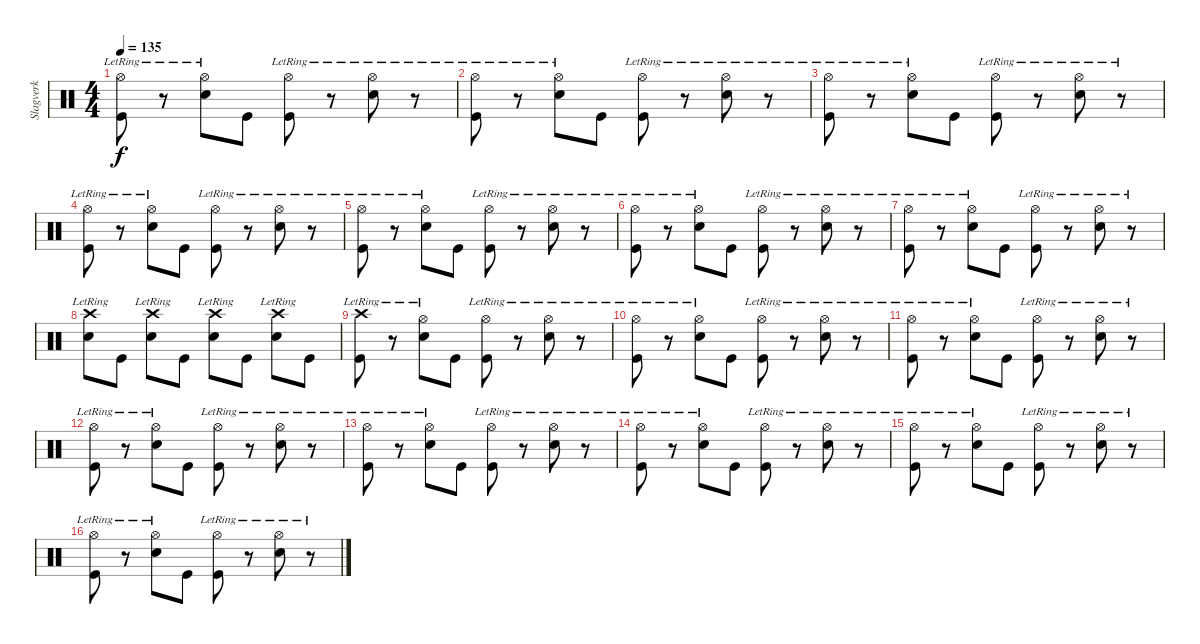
\track ("Slagverk" "Slagverk") {instrument percussion}
\staff {score}
\articulation defaults
\ts (4 4)
\tempo 135
\clef neutral
\ks c
("Hi-Hat (open)"{lr} "Kick (hit)").8{dy f} r.8 ("Electric Snare (hit)" "Hi-Hat (open)"{lr}).8 "Kick (hit)".8 ("Hi-Hat (open)"{lr} "Kick (hit)").8 r.8 ("Electric Snare (hit)" "Hi-Hat (open)"{lr}).8 r.8 |
("Hi-Hat (open)"{lr} "Kick (hit)").8 r.8 ("Electric Snare (hit)" "Hi-Hat (open)"{lr}).8 "Kick (hit)".8 ("Hi-Hat (open)"{lr} "Kick (hit)").8 r.8 ("Electric Snare (hit)" "Hi-Hat (open)"{lr}).8 r.8 |
("Hi-Hat (open)"{lr} "Kick (hit)").8 r.8 ("Electric Snare (hit)" "Hi-Hat (open)"{lr}).8 "Kick (hit)".8 ("Hi-Hat (open)"{lr} "Kick (hit)").8 r.8 ("Electric Snare (hit)" "Hi-Hat (open)"{lr}).8 r.8 |
("Hi-Hat (open)"{lr} "Kick (hit)").8 r.8 ("Electric Snare (hit)" "Hi-Hat (open)"{lr}).8 "Kick (hit)".8 ("Hi-Hat (open)"{lr} "Kick (hit)").8 r.8 ("Electric Snare (hit)" "Hi-Hat (open)"{lr}).8 r.8 |
("Hi-Hat (open)"{lr} "Kick (hit)").8 r.8 ("Electric Snare (hit)" "Hi-Hat (open)"{lr}).8 "Kick (hit)".8 ("Hi-Hat (open)"{lr} "Kick (hit)").8 r.8 ("Electric Snare (hit)" "Hi-Hat (open)"{lr}).8 r.8 |
("Hi-Hat (open)"{lr} "Kick (hit)").8 r.8 ("Electric Snare (hit)" "Hi-Hat (open)"{lr}).8 "Kick (hit)".8 ("Hi-Hat (open)"{lr} "Kick (hit)").8 r.8 ("Electric Snare (hit)" "Hi-Hat (open)"{lr}).8 r.8 |
("Hi-Hat (open)"{lr} "Kick (hit)").8 r.8 ("Electric Snare (hit)" "Hi-Hat (open)"{lr}).8 "Kick (hit)".8 ("Hi-Hat (open)"{lr} "Kick (hit)").8 r.8 ("Electric Snare (hit)" "Hi-Hat (open)"{lr}).8 r.8 |
("Crash high (hit)"{lr} "Electric Snare (hit)").8 "Kick (hit)".8 ("Crash high (hit)"{lr} "Electric Snare (hit)").8 "Kick (hit)".8 ("Crash high (hit)"{lr} "Electric Snare (hit)").8 "Kick (hit)".8 ("Crash high (hit)"{lr} "Electric Snare (hit)").8 "Kick (hit)".8 |
("Crash high (hit)"{lr} "Kick (hit)").8 r.8 ("Electric Snare (hit)" "Hi-Hat (open)"{lr}).8 "Kick (hit)".8 ("Hi-Hat (open)"{lr} "Kick (hit)").8 r.8 ("Electric Snare (hit)" "Hi-Hat (open)"{lr}).8 r.8 |
("Hi-Hat (open)"{lr} "Kick (hit)").8 r.8 ("Electric Snare (hit)" "Hi-Hat (open)"{lr}).8 "Kick (hit)".8 ("Hi-Hat (open)"{lr} "Kick (hit)").8 r.8 ("Electric Snare (hit)" "Hi-Hat (open)"{lr}).8 r.8 |
("Hi-Hat (open)"{lr} "Kick (hit)").8 r.8 ("Electric Snare (hit)" "Hi-Hat (open)"{lr}).8 "Kick (hit)".8 ("Hi-Hat (open)"{lr} "Kick (hit)").8 r.8 ("Electric Snare (hit)" "Hi-Hat (open)"{lr}).8 r.8 |
("Hi-Hat (open)"{lr} "Kick (hit)").8 r.8 ("Electric Snare (hit)" "Hi-Hat (open)"{lr}).8 "Kick (hit)".8 ("Hi-Hat (open)"{lr} "Kick (hit)").8 r.8 ("Electric Snare (hit)" "Hi-Hat (open)"{lr}).8 r.8 |
("Hi-Hat (open)"{lr} "Kick (hit)").8 r.8 ("Electric Snare (hit)" "Hi-Hat (open)"{lr}).8 "Kick (hit)".8 ("Hi-Hat (open)"{lr} "Kick (hit)").8 r.8 ("Electric Snare (hit)" "Hi-Hat (open)"{lr}).8 r.8 |
("Hi-Hat (open)"{lr} "Kick (hit)").8 r.8 ("Electric Snare (hit)" "Hi-Hat (open)"{lr}).8 "Kick (hit)".8 ("Hi-Hat (open)"{lr} "Kick (hit)").8 r.8 ("Electric Snare (hit)" "Hi-Hat (open)"{lr}).8 r.8 |
("Hi-Hat (open)"{lr} "Kick (hit)").8 r.8 ("Electric Snare (hit)" "Hi-Hat (open)"{lr}).8 "Kick (hit)".8 ("Hi-Hat (open)"{lr} "Kick (hit)").8 r.8 ("Electric Snare (hit)" "Hi-Hat (open)"{lr}).8 r.8 |
("Hi-Hat (open)"{lr} "Kick (hit)").8 r.8 ("Electric Snare (hit)" "Hi-Hat (open)"{lr}).8 "Kick (hit)".8 ("Hi-Hat (open)"{lr} "Kick (hit)").8 r.8 ("Electric Snare (hit)" "Hi-Hat (open)"{lr}).8 r.8
